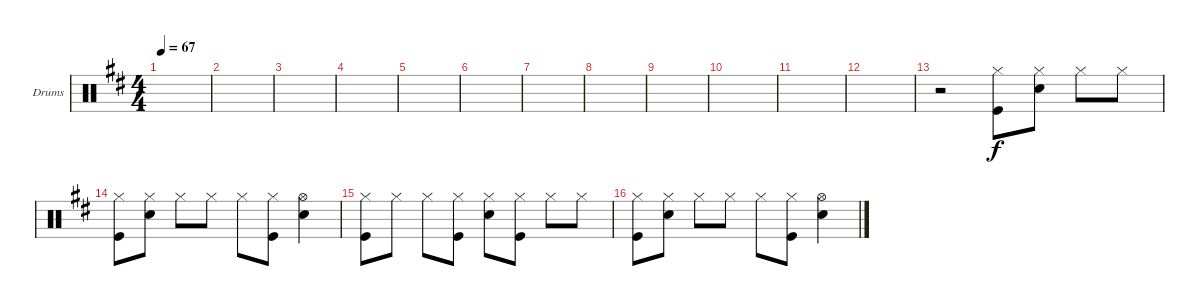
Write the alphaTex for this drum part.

\defaultSystemsLayout 4
\bracketExtendMode groupsimilarinstruments
\firstSystemTrackNameOrientation horizontal
\otherSystemsTrackNameOrientation horizontal
\track ("Drumkit" "Drums") {instrument percussion}
\staff {score}
\articulation defaults
\ts (4 4)
\tempo 67
\clef neutral
\scale
0.333333
\ks d
|
\scale
0.333333 |
\scale
0.333333 |
\scale
0.333333 |
\scale
0.333333 |
\scale
0.333333 |
\scale
0.333333 |
\scale
0.333333 |
\scale
0.333333 |
\scale
0.333333 |
\scale
0.333333 |
\scale
0.333333 |
\scale
0.333333 r.2 ("Hi-Hat (closed)" "Kick (hit)").8 ("Hi-Hat (closed)" "Snare (hit) 2").8 "Hi-Hat (closed)".8 "Hi-Hat (closed)".8 |
\scale
0.333333 ("Hi-Hat (closed)" "Kick (hit)").8 ("Hi-Hat (closed)" "Snare (hit) 2").8 "Hi-Hat (closed)".8 "Hi-Hat (closed)".8 "Hi-Hat (closed)".8 ("Hi-Hat (closed)" "Kick (hit)").8 ("Hi-Hat (open)" "Snare (hit) 2").4 |
\scale
0.333333 ("Hi-Hat (closed)" "Kick (hit)").8 "Hi-Hat (closed)".8 "Hi-Hat (closed)".8 ("Hi-Hat (closed)" "Kick (hit)").8 ("Hi-Hat (closed)" "Snare (hit) 2").8 ("Hi-Hat (closed)" "Kick (hit)").8 "Hi-Hat (closed)".8 "Hi-Hat (closed)".8 |
\scale
0.333333 ("Hi-Hat (closed)" "Kick (hit)").8 ("Hi-Hat (closed)" "Snare (hit) 2").8 "Hi-Hat (closed)".8 "Hi-Hat (closed)".8 "Hi-Hat (closed)".8 ("Hi-Hat (closed)" "Kick (hit)").8 ("Hi-Hat (open)" "Snare (hit) 2").4
